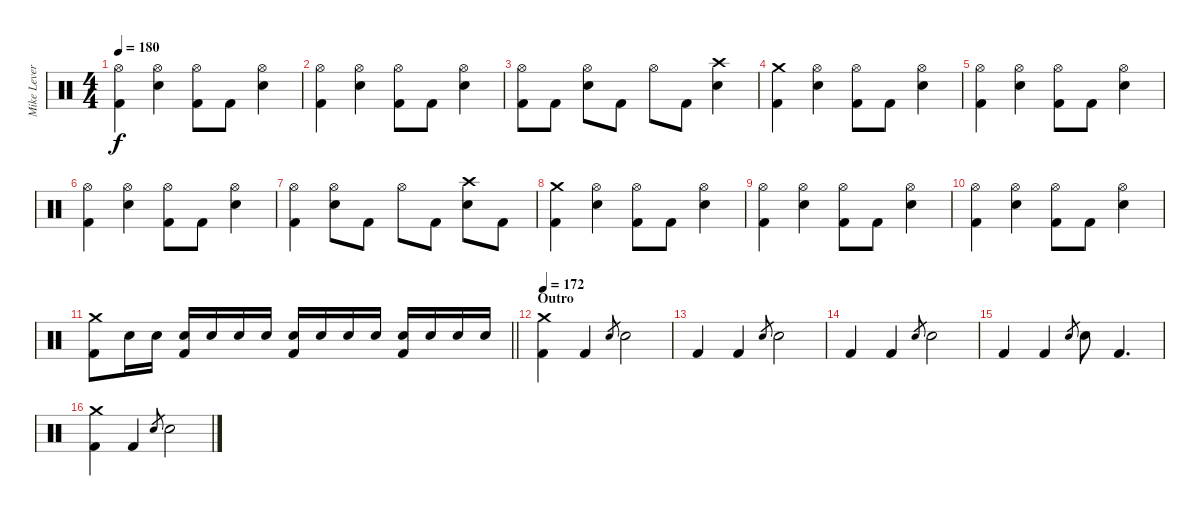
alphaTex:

\track ("Mike Leverence - Drums" "Mike Lever") {instrument percussion}
\staff {score}
\articulation defaults
\ts (4 4)
\tempo 180
\clef neutral
\ks c
("Hi-Hat (open)" "Kick (hit) 2").4{dy f} ("Hi-Hat (open)" "Electric Snare (hit)").4 ("Hi-Hat (open)" "Kick (hit) 2").8 "Kick (hit) 2".8 ("Hi-Hat (open)" "Electric Snare (hit)").4 |
("Hi-Hat (open)" "Kick (hit) 2").4 ("Hi-Hat (open)" "Electric Snare (hit)").4 ("Hi-Hat (open)" "Kick (hit) 2").8 "Kick (hit) 2".8 ("Hi-Hat (open)" "Electric Snare (hit)").4 |
("Hi-Hat (open)" "Kick (hit) 2").8 "Kick (hit) 2".8 ("Hi-Hat (open)" "Electric Snare (hit)").8 "Kick (hit) 2".8 "Hi-Hat (open)".8 "Kick (hit) 2".8 ("Crash high (hit)" "Electric Snare (hit)").4 |
("Crash medium (hit)" "Kick (hit) 2").4 ("Hi-Hat (open)" "Electric Snare (hit)").4 ("Hi-Hat (open)" "Kick (hit) 2").8 "Kick (hit) 2".8 ("Hi-Hat (open)" "Electric Snare (hit)").4 |
("Hi-Hat (open)" "Kick (hit) 2").4 ("Hi-Hat (open)" "Electric Snare (hit)").4 ("Hi-Hat (open)" "Kick (hit) 2").8 "Kick (hit) 2".8 ("Hi-Hat (open)" "Electric Snare (hit)").4 |
("Hi-Hat (open)" "Kick (hit) 2").4 ("Hi-Hat (open)" "Electric Snare (hit)").4 ("Hi-Hat (open)" "Kick (hit) 2").8 "Kick (hit) 2".8 ("Hi-Hat (open)" "Electric Snare (hit)").4 |
("Hi-Hat (open)" "Kick (hit) 2").4 ("Hi-Hat (open)" "Electric Snare (hit)").8 "Kick (hit) 2".8 "Hi-Hat (open)".8 "Kick (hit) 2".8 ("Crash high (hit)" "Electric Snare (hit)").8 "Kick (hit) 2".8 |
("Crash medium (hit)" "Kick (hit) 2").4 ("Hi-Hat (open)" "Electric Snare (hit)").4 ("Hi-Hat (open)" "Kick (hit) 2").8 "Kick (hit) 2".8 ("Hi-Hat (open)" "Electric Snare (hit)").4 |
("Hi-Hat (open)" "Kick (hit) 2").4 ("Hi-Hat (open)" "Electric Snare (hit)").4 ("Hi-Hat (open)" "Kick (hit) 2").8 "Kick (hit) 2".8 ("Hi-Hat (open)" "Electric Snare (hit)").4 |
("Hi-Hat (open)" "Kick (hit) 2").4 ("Hi-Hat (open)" "Electric Snare (hit)").4 ("Hi-Hat (open)" "Kick (hit) 2").8 "Kick (hit) 2".8 ("Hi-Hat (open)" "Electric Snare (hit)").4 |
\barLineRight lightlight
("Crash medium (hit)" "Kick (hit) 2").8 "Electric Snare (hit)".16 "Electric Snare (hit)".16 ("Electric Snare (hit)" "Kick (hit) 2").16 "Electric Snare (hit)".16 "Electric Snare (hit)".16 "Electric Snare (hit)".16 ("Electric Snare (hit)" "Kick (hit) 2").16 "Electric Snare (hit)".16 "Electric Snare (hit)".16 "Electric Snare (hit)".16 ("Electric Snare (hit)" "Kick (hit) 2").16 "Electric Snare (hit)".16 "Electric Snare (hit)".16 "Electric Snare (hit)".16 |
\section ("" "Outro")
\tempo 172
("Crash medium (hit)" "Kick (hit) 2").4 "Kick (hit) 2".4 "Electric Snare (hit)".8{gr} "Electric Snare (hit)".2 |
"Kick (hit) 2".4 "Kick (hit) 2".4 "Electric Snare (hit)".8{gr} "Electric Snare (hit)".2 |
"Kick (hit) 2".4 "Kick (hit) 2".4 "Electric Snare (hit)".8{gr} "Electric Snare (hit)".2 |
"Kick (hit) 2".4 "Kick (hit) 2".4 "Electric Snare (hit)".8{gr} "Electric Snare (hit)".8 "Kick (hit) 2".4{d} |
("Crash medium (hit)" "Kick (hit) 2").4 "Kick (hit) 2".4 "Electric Snare (hit)".8{gr} "Electric Snare (hit)".2
